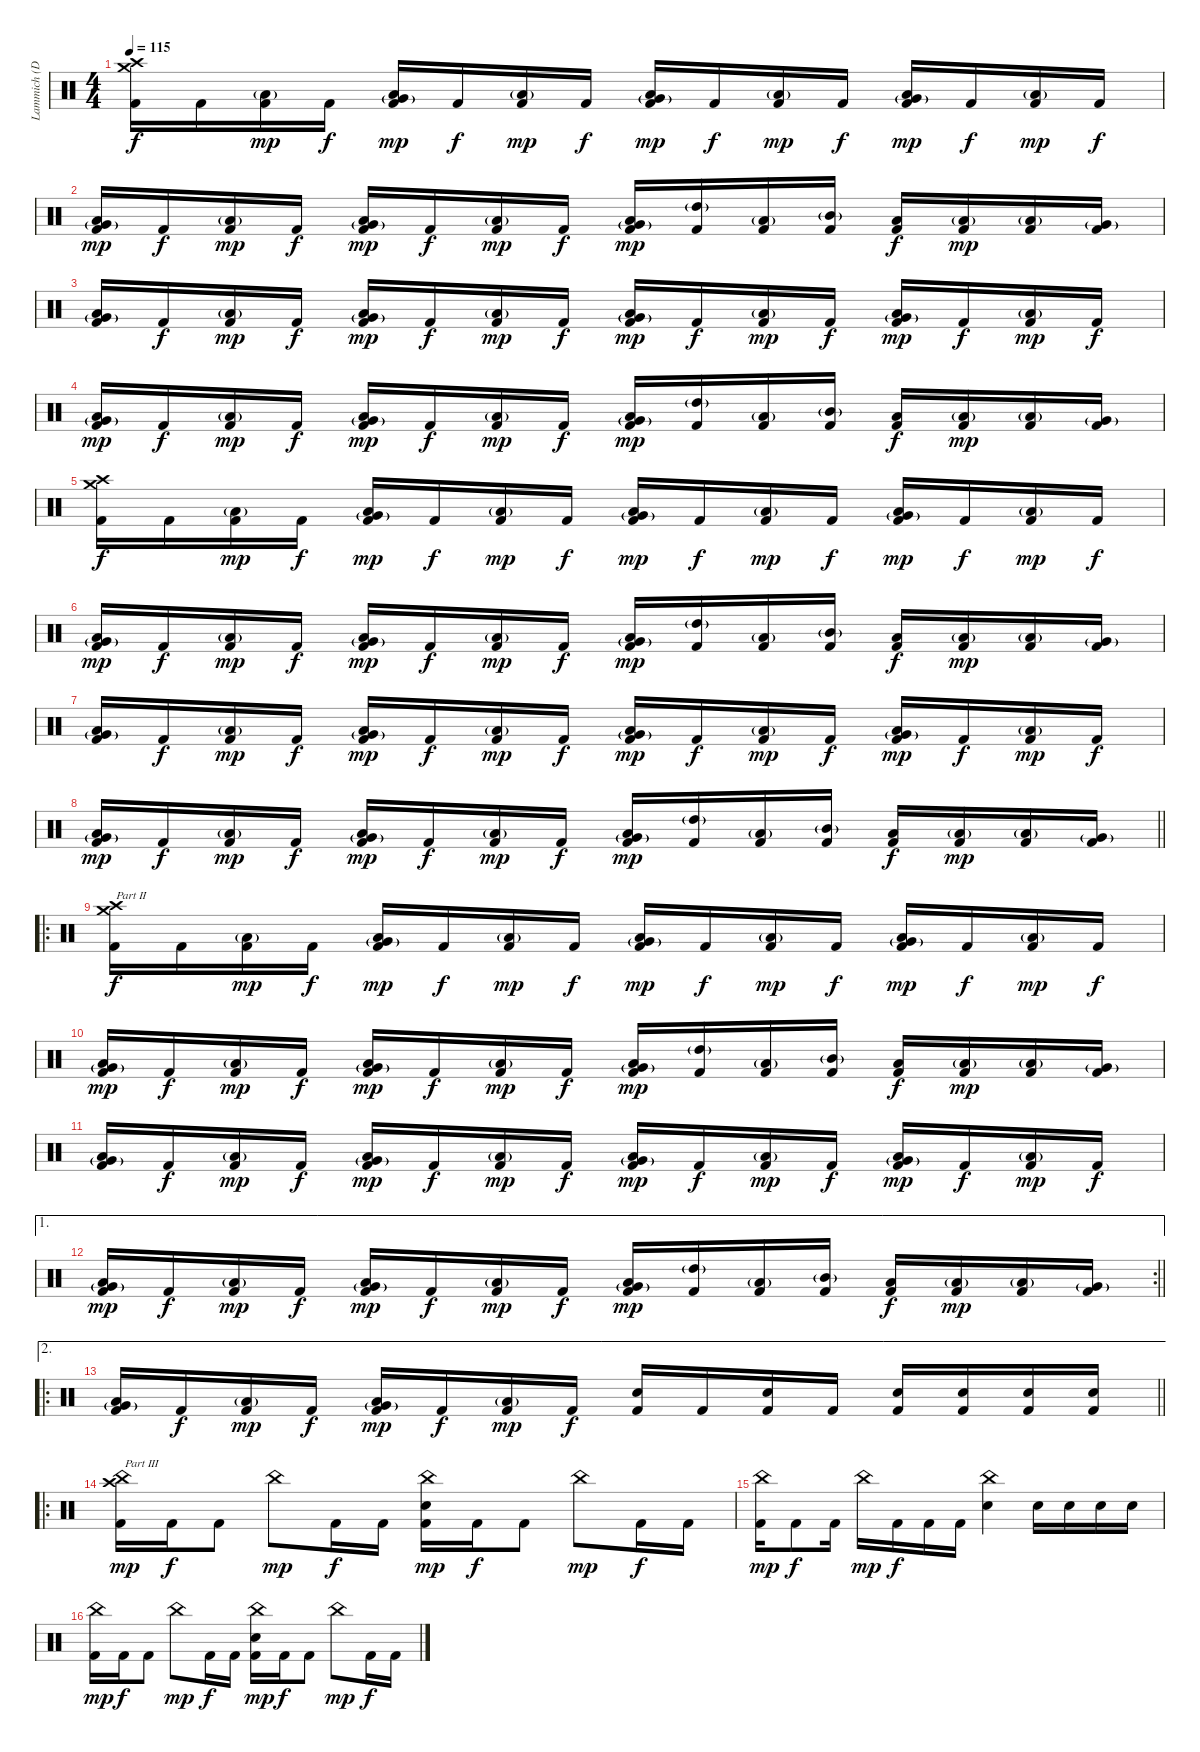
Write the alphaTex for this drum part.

\track ("Lammich (Drums)" "Lammich (D") {instrument percussion}
\staff {score}
\articulation defaults
\ts (4 4)
\tempo 115
\clef neutral
\ks c
("Crash medium (hit)" "Crash high (hit)" "Kick (hit) 2").16{dy f} "Kick (hit) 2".16 ("Low Floor Tom (hit)"{g} "Kick (hit) 2").16{dy mp} "Kick (hit) 2".16{dy f} ("Very Low Tom (hit)"{g} "Low Floor Tom (hit)" "Kick (hit) 2").16{dy mp} "Kick (hit) 2".16{dy f} ("Low Floor Tom (hit)"{g} "Kick (hit) 2").16{dy mp} "Kick (hit) 2".16{dy f} ("Very Low Tom (hit)"{g} "Low Floor Tom (hit)" "Kick (hit) 2").16{dy mp} "Kick (hit) 2".16{dy f} ("Low Floor Tom (hit)"{g} "Kick (hit) 2").16{dy mp} "Kick (hit) 2".16{dy f} ("Very Low Tom (hit)"{g} "Low Floor Tom (hit)" "Kick (hit) 2").16{dy mp} "Kick (hit) 2".16{dy f} ("Low Floor Tom (hit)"{g} "Kick (hit) 2").16{dy mp} "Kick (hit) 2".16{dy f} |
("Very Low Tom (hit)"{g} "Low Floor Tom (hit)" "Kick (hit) 2").16{dy mp} "Kick (hit) 2".16{dy f} ("Low Floor Tom (hit)"{g} "Kick (hit) 2").16{dy mp} "Kick (hit) 2".16{dy f} ("Very Low Tom (hit)"{g} "Low Floor Tom (hit)" "Kick (hit) 2").16{dy mp} "Kick (hit) 2".16{dy f} ("Low Floor Tom (hit)"{g} "Kick (hit) 2").16{dy mp} "Kick (hit) 2".16{dy f} ("Very Low Tom (hit)"{g} "Low Floor Tom (hit)" "Kick (hit) 2").16{dy mp} ("High Tom (hit)"{g} "Kick (hit) 2").16 ("Low Floor Tom (hit)"{g} "Kick (hit) 2").16 ("Mid Tom (hit)"{g} "Kick (hit) 2").16 ("Low Floor Tom (hit)" "Kick (hit) 2").16{dy f} ("Low Tom (hit)"{g} "Kick (hit) 2").16{dy mp} ("Low Floor Tom (hit)"{g} "Kick (hit) 2").16 ("Very Low Tom (hit)"{g} "Kick (hit) 2").16 |
("Very Low Tom (hit)"{g} "Low Floor Tom (hit)" "Kick (hit) 2").16 "Kick (hit) 2".16{dy f} ("Low Floor Tom (hit)"{g} "Kick (hit) 2").16{dy mp} "Kick (hit) 2".16{dy f} ("Very Low Tom (hit)"{g} "Low Floor Tom (hit)" "Kick (hit) 2").16{dy mp} "Kick (hit) 2".16{dy f} ("Low Floor Tom (hit)"{g} "Kick (hit) 2").16{dy mp} "Kick (hit) 2".16{dy f} ("Very Low Tom (hit)"{g} "Low Floor Tom (hit)" "Kick (hit) 2").16{dy mp} "Kick (hit) 2".16{dy f} ("Low Floor Tom (hit)"{g} "Kick (hit) 2").16{dy mp} "Kick (hit) 2".16{dy f} ("Very Low Tom (hit)"{g} "Low Floor Tom (hit)" "Kick (hit) 2").16{dy mp} "Kick (hit) 2".16{dy f} ("Low Floor Tom (hit)"{g} "Kick (hit) 2").16{dy mp} "Kick (hit) 2".16{dy f} |
("Very Low Tom (hit)"{g} "Low Floor Tom (hit)" "Kick (hit) 2").16{dy mp} "Kick (hit) 2".16{dy f} ("Low Floor Tom (hit)"{g} "Kick (hit) 2").16{dy mp} "Kick (hit) 2".16{dy f} ("Very Low Tom (hit)"{g} "Low Floor Tom (hit)" "Kick (hit) 2").16{dy mp} "Kick (hit) 2".16{dy f} ("Low Floor Tom (hit)"{g} "Kick (hit) 2").16{dy mp} "Kick (hit) 2".16{dy f} ("Very Low Tom (hit)"{g} "Low Floor Tom (hit)" "Kick (hit) 2").16{dy mp} ("High Tom (hit)"{g} "Kick (hit) 2").16 ("Low Floor Tom (hit)"{g} "Kick (hit) 2").16 ("Mid Tom (hit)"{g} "Kick (hit) 2").16 ("Low Floor Tom (hit)" "Kick (hit) 2").16{dy f} ("Low Tom (hit)"{g} "Kick (hit) 2").16{dy mp} ("Low Floor Tom (hit)"{g} "Kick (hit) 2").16 ("Very Low Tom (hit)"{g} "Kick (hit) 2").16 |
("Crash medium (hit)" "Crash high (hit)" "Kick (hit) 2").16{dy f} "Kick (hit) 2".16 ("Low Floor Tom (hit)"{g} "Kick (hit) 2").16{dy mp} "Kick (hit) 2".16{dy f} ("Very Low Tom (hit)"{g} "Low Floor Tom (hit)" "Kick (hit) 2").16{dy mp} "Kick (hit) 2".16{dy f} ("Low Floor Tom (hit)"{g} "Kick (hit) 2").16{dy mp} "Kick (hit) 2".16{dy f} ("Very Low Tom (hit)"{g} "Low Floor Tom (hit)" "Kick (hit) 2").16{dy mp} "Kick (hit) 2".16{dy f} ("Low Floor Tom (hit)"{g} "Kick (hit) 2").16{dy mp} "Kick (hit) 2".16{dy f} ("Very Low Tom (hit)"{g} "Low Floor Tom (hit)" "Kick (hit) 2").16{dy mp} "Kick (hit) 2".16{dy f} ("Low Floor Tom (hit)"{g} "Kick (hit) 2").16{dy mp} "Kick (hit) 2".16{dy f} |
("Very Low Tom (hit)"{g} "Low Floor Tom (hit)" "Kick (hit) 2").16{dy mp} "Kick (hit) 2".16{dy f} ("Low Floor Tom (hit)"{g} "Kick (hit) 2").16{dy mp} "Kick (hit) 2".16{dy f} ("Very Low Tom (hit)"{g} "Low Floor Tom (hit)" "Kick (hit) 2").16{dy mp} "Kick (hit) 2".16{dy f} ("Low Floor Tom (hit)"{g} "Kick (hit) 2").16{dy mp} "Kick (hit) 2".16{dy f} ("Very Low Tom (hit)"{g} "Low Floor Tom (hit)" "Kick (hit) 2").16{dy mp} ("High Tom (hit)"{g} "Kick (hit) 2").16 ("Low Floor Tom (hit)"{g} "Kick (hit) 2").16 ("Mid Tom (hit)"{g} "Kick (hit) 2").16 ("Low Floor Tom (hit)" "Kick (hit) 2").16{dy f} ("Low Tom (hit)"{g} "Kick (hit) 2").16{dy mp} ("Low Floor Tom (hit)"{g} "Kick (hit) 2").16 ("Very Low Tom (hit)"{g} "Kick (hit) 2").16 |
("Very Low Tom (hit)"{g} "Low Floor Tom (hit)" "Kick (hit) 2").16 "Kick (hit) 2".16{dy f} ("Low Floor Tom (hit)"{g} "Kick (hit) 2").16{dy mp} "Kick (hit) 2".16{dy f} ("Very Low Tom (hit)"{g} "Low Floor Tom (hit)" "Kick (hit) 2").16{dy mp} "Kick (hit) 2".16{dy f} ("Low Floor Tom (hit)"{g} "Kick (hit) 2").16{dy mp} "Kick (hit) 2".16{dy f} ("Very Low Tom (hit)"{g} "Low Floor Tom (hit)" "Kick (hit) 2").16{dy mp} "Kick (hit) 2".16{dy f} ("Low Floor Tom (hit)"{g} "Kick (hit) 2").16{dy mp} "Kick (hit) 2".16{dy f} ("Very Low Tom (hit)"{g} "Low Floor Tom (hit)" "Kick (hit) 2").16{dy mp} "Kick (hit) 2".16{dy f} ("Low Floor Tom (hit)"{g} "Kick (hit) 2").16{dy mp} "Kick (hit) 2".16{dy f} |
\barLineRight lightlight
("Very Low Tom (hit)"{g} "Low Floor Tom (hit)" "Kick (hit) 2").16{dy mp} "Kick (hit) 2".16{dy f} ("Low Floor Tom (hit)"{g} "Kick (hit) 2").16{dy mp} "Kick (hit) 2".16{dy f} ("Very Low Tom (hit)"{g} "Low Floor Tom (hit)" "Kick (hit) 2").16{dy mp} "Kick (hit) 2".16{dy f} ("Low Floor Tom (hit)"{g} "Kick (hit) 2").16{dy mp} "Kick (hit) 2".16{dy f} ("Very Low Tom (hit)"{g} "Low Floor Tom (hit)" "Kick (hit) 2").16{dy mp} ("High Tom (hit)"{g} "Kick (hit) 2").16 ("Low Floor Tom (hit)"{g} "Kick (hit) 2").16 ("Mid Tom (hit)"{g} "Kick (hit) 2").16 ("Low Floor Tom (hit)" "Kick (hit) 2").16{dy f} ("Low Tom (hit)"{g} "Kick (hit) 2").16{dy mp} ("Low Floor Tom (hit)"{g} "Kick (hit) 2").16 ("Very Low Tom (hit)"{g} "Kick (hit) 2").16 |
\ro
("Crash medium (hit)" "Crash high (hit)" "Kick (hit) 2").16{txt "Part II" dy f} "Kick (hit) 2".16 ("Low Floor Tom (hit)"{g} "Kick (hit) 2").16{dy mp} "Kick (hit) 2".16{dy f} ("Very Low Tom (hit)"{g} "Low Floor Tom (hit)" "Kick (hit) 2").16{dy mp} "Kick (hit) 2".16{dy f} ("Low Floor Tom (hit)"{g} "Kick (hit) 2").16{dy mp} "Kick (hit) 2".16{dy f} ("Very Low Tom (hit)"{g} "Low Floor Tom (hit)" "Kick (hit) 2").16{dy mp} "Kick (hit) 2".16{dy f} ("Low Floor Tom (hit)"{g} "Kick (hit) 2").16{dy mp} "Kick (hit) 2".16{dy f} ("Very Low Tom (hit)"{g} "Low Floor Tom (hit)" "Kick (hit) 2").16{dy mp} "Kick (hit) 2".16{dy f} ("Low Floor Tom (hit)"{g} "Kick (hit) 2").16{dy mp} "Kick (hit) 2".16{dy f} |
("Very Low Tom (hit)"{g} "Low Floor Tom (hit)" "Kick (hit) 2").16{dy mp} "Kick (hit) 2".16{dy f} ("Low Floor Tom (hit)"{g} "Kick (hit) 2").16{dy mp} "Kick (hit) 2".16{dy f} ("Very Low Tom (hit)"{g} "Low Floor Tom (hit)" "Kick (hit) 2").16{dy mp} "Kick (hit) 2".16{dy f} ("Low Floor Tom (hit)"{g} "Kick (hit) 2").16{dy mp} "Kick (hit) 2".16{dy f} ("Very Low Tom (hit)"{g} "Low Floor Tom (hit)" "Kick (hit) 2").16{dy mp} ("High Tom (hit)"{g} "Kick (hit) 2").16 ("Low Floor Tom (hit)"{g} "Kick (hit) 2").16 ("Mid Tom (hit)"{g} "Kick (hit) 2").16 ("Low Floor Tom (hit)" "Kick (hit) 2").16{dy f} ("Low Tom (hit)"{g} "Kick (hit) 2").16{dy mp} ("Low Floor Tom (hit)"{g} "Kick (hit) 2").16 ("Very Low Tom (hit)"{g} "Kick (hit) 2").16 |
("Very Low Tom (hit)"{g} "Low Floor Tom (hit)" "Kick (hit) 2").16 "Kick (hit) 2".16{dy f} ("Low Floor Tom (hit)"{g} "Kick (hit) 2").16{dy mp} "Kick (hit) 2".16{dy f} ("Very Low Tom (hit)"{g} "Low Floor Tom (hit)" "Kick (hit) 2").16{dy mp} "Kick (hit) 2".16{dy f} ("Low Floor Tom (hit)"{g} "Kick (hit) 2").16{dy mp} "Kick (hit) 2".16{dy f} ("Very Low Tom (hit)"{g} "Low Floor Tom (hit)" "Kick (hit) 2").16{dy mp} "Kick (hit) 2".16{dy f} ("Low Floor Tom (hit)"{g} "Kick (hit) 2").16{dy mp} "Kick (hit) 2".16{dy f} ("Very Low Tom (hit)"{g} "Low Floor Tom (hit)" "Kick (hit) 2").16{dy mp} "Kick (hit) 2".16{dy f} ("Low Floor Tom (hit)"{g} "Kick (hit) 2").16{dy mp} "Kick (hit) 2".16{dy f} |
\ae 1
\rc 2
\barLineRight lightlight
("Very Low Tom (hit)"{g} "Low Floor Tom (hit)" "Kick (hit) 2").16{dy mp} "Kick (hit) 2".16{dy f} ("Low Floor Tom (hit)"{g} "Kick (hit) 2").16{dy mp} "Kick (hit) 2".16{dy f} ("Very Low Tom (hit)"{g} "Low Floor Tom (hit)" "Kick (hit) 2").16{dy mp} "Kick (hit) 2".16{dy f} ("Low Floor Tom (hit)"{g} "Kick (hit) 2").16{dy mp} "Kick (hit) 2".16{dy f} ("Very Low Tom (hit)"{g} "Low Floor Tom (hit)" "Kick (hit) 2").16{dy mp} ("High Tom (hit)"{g} "Kick (hit) 2").16 ("Low Floor Tom (hit)"{g} "Kick (hit) 2").16 ("Mid Tom (hit)"{g} "Kick (hit) 2").16 ("Low Floor Tom (hit)" "Kick (hit) 2").16{dy f} ("Low Tom (hit)"{g} "Kick (hit) 2").16{dy mp} ("Low Floor Tom (hit)"{g} "Kick (hit) 2").16 ("Very Low Tom (hit)"{g} "Kick (hit) 2").16 |
\ae 2
\ro
\barLineRight lightlight
("Very Low Tom (hit)"{g} "Low Floor Tom (hit)" "Kick (hit) 2").16 "Kick (hit) 2".16{dy f} ("Low Floor Tom (hit)"{g} "Kick (hit) 2").16{dy mp} "Kick (hit) 2".16{dy f} ("Very Low Tom (hit)"{g} "Low Floor Tom (hit)" "Kick (hit) 2").16{dy mp} "Kick (hit) 2".16{dy f} ("Low Floor Tom (hit)"{g} "Kick (hit) 2").16{dy mp} "Kick (hit) 2".16{dy f} ("Electric Snare (hit)" "Kick (hit) 2").16 "Kick (hit) 2".16 ("Electric Snare (hit)" "Kick (hit) 2").16 "Kick (hit) 2".16 ("Electric Snare (hit)" "Kick (hit) 2").16 ("Electric Snare (hit)" "Kick (hit) 2").16 ("Electric Snare (hit)" "Kick (hit) 2").16 ("Electric Snare (hit)" "Kick (hit) 2").16 |
\ro
("China (hit)" "Crash high (hit)" "Kick (hit) 2").16{txt "Part III" dy mp} "Kick (hit) 2".16{dy f} "Kick (hit) 2".8 "China (hit)".8{dy mp} "Kick (hit) 2".16{dy f} "Kick (hit) 2".16 ("China (hit)" "Electric Snare (hit)" "Kick (hit) 2").16{dy mp} "Kick (hit) 2".16{dy f} "Kick (hit) 2".8 "China (hit)".8{dy mp} "Kick (hit) 2".16{dy f} "Kick (hit) 2".16 |
("China (hit)" "Kick (hit) 2").16{dy mp} "Kick (hit) 2".8{dy f} "Kick (hit) 2".16 "China (hit)".16{dy mp} "Kick (hit) 2".16{dy f} "Kick (hit) 2".16 "Kick (hit) 2".16 ("China (hit)" "Electric Snare (hit)").4 "Electric Snare (hit)".16 "Electric Snare (hit)".16 "Electric Snare (hit)".16 "Electric Snare (hit)".16 |
("China (hit)" "Kick (hit) 2").16{dy mp} "Kick (hit) 2".16{dy f} "Kick (hit) 2".8 "China (hit)".8{dy mp} "Kick (hit) 2".16{dy f} "Kick (hit) 2".16 ("China (hit)" "Electric Snare (hit)" "Kick (hit) 2").16{dy mp} "Kick (hit) 2".16{dy f} "Kick (hit) 2".8 "China (hit)".8{dy mp} "Kick (hit) 2".16{dy f} "Kick (hit) 2".16
